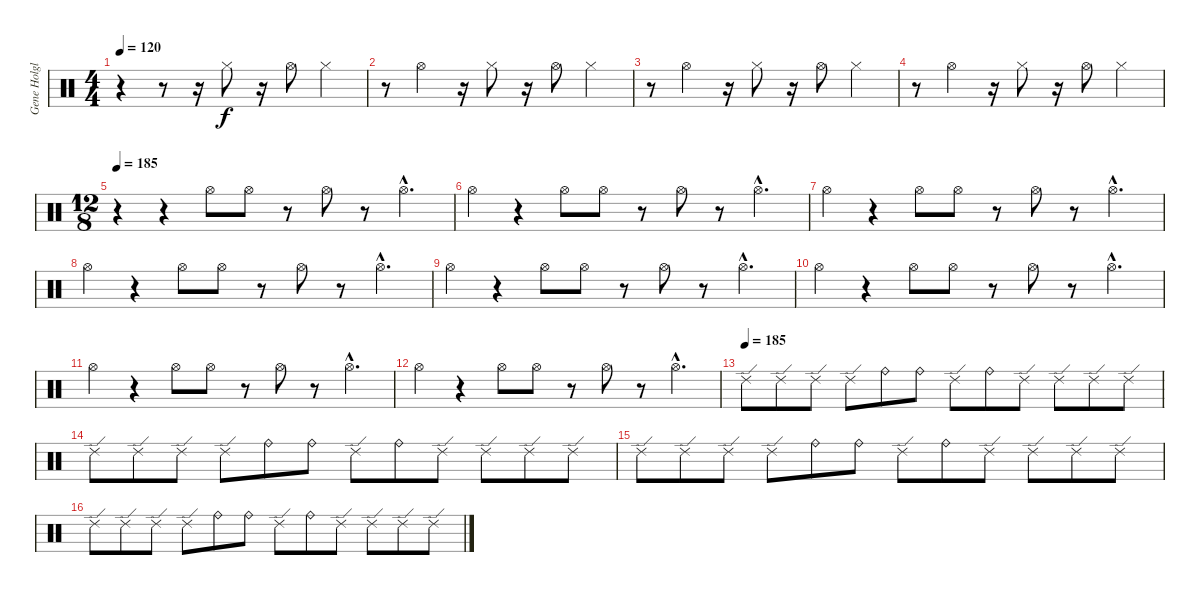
\track ("Gene Holglan" "Gene Holgl") {instrument percussion}
\staff {score}
\articulation defaults
\ts (4 4)
\tempo 120
\clef neutral
\ks c
r.4{dy f} r.8 r.16 "Hi-Hat (closed)".8 r.16 "Hi-Hat (open)".8 "Hi-Hat (closed)".4 |
r.8 "Hi-Hat (open)".4 r.16 "Hi-Hat (closed)".8 r.16 "Hi-Hat (open)".8 "Hi-Hat (closed)".4 |
r.8 "Hi-Hat (open)".4 r.16 "Hi-Hat (closed)".8 r.16 "Hi-Hat (open)".8 "Hi-Hat (closed)".4 |
r.8 "Hi-Hat (open)".4 r.16 "Hi-Hat (closed)".8 r.16 "Hi-Hat (open)".8 "Hi-Hat (closed)".4 |
\ts (12 8)
\tempo 185
r.4 r.4 "Hi-Hat (open)".8 "Hi-Hat (open)".8 r.8 "Hi-Hat (open)".8 r.8 "Hi-Hat (open)"{hac}.4{d} |
"Hi-Hat (open)".4 r.4 "Hi-Hat (open)".8 "Hi-Hat (open)".8 r.8 "Hi-Hat (open)".8 r.8 "Hi-Hat (open)"{hac}.4{d} |
"Hi-Hat (open)".4 r.4 "Hi-Hat (open)".8 "Hi-Hat (open)".8 r.8 "Hi-Hat (open)".8 r.8 "Hi-Hat (open)"{hac}.4{d} |
"Hi-Hat (open)".4 r.4 "Hi-Hat (open)".8 "Hi-Hat (open)".8 r.8 "Hi-Hat (open)".8 r.8 "Hi-Hat (open)"{hac}.4{d} |
"Hi-Hat (open)".4 r.4 "Hi-Hat (open)".8 "Hi-Hat (open)".8 r.8 "Hi-Hat (open)".8 r.8 "Hi-Hat (open)"{hac}.4{d} |
"Hi-Hat (open)".4 r.4 "Hi-Hat (open)".8 "Hi-Hat (open)".8 r.8 "Hi-Hat (open)".8 r.8 "Hi-Hat (open)"{hac}.4{d} |
"Hi-Hat (open)".4 r.4 "Hi-Hat (open)".8 "Hi-Hat (open)".8 r.8 "Hi-Hat (open)".8 r.8 "Hi-Hat (open)"{hac}.4{d} |
"Hi-Hat (open)".4 r.4 "Hi-Hat (open)".8 "Hi-Hat (open)".8 r.8 "Hi-Hat (open)".8 r.8 "Hi-Hat (open)"{hac}.4{d} |
\tempo (185)
"Ride (edge) 2".8 "Ride (edge) 2".8 "Ride (edge) 2".8 "Ride (edge) 2".8 "Ride (bell)".8 "Ride (bell)".8 "Ride (edge) 2".8 "Ride (bell)".8 "Ride (edge) 2".8 "Ride (edge) 2".8 "Ride (edge) 2".8 "Ride (edge) 2".8 |
"Ride (edge) 2".8 "Ride (edge) 2".8 "Ride (edge) 2".8 "Ride (edge) 2".8 "Ride (bell)".8 "Ride (bell)".8 "Ride (edge) 2".8 "Ride (bell)".8 "Ride (edge) 2".8 "Ride (edge) 2".8 "Ride (edge) 2".8 "Ride (edge) 2".8 |
"Ride (edge) 2".8 "Ride (edge) 2".8 "Ride (edge) 2".8 "Ride (edge) 2".8 "Ride (bell)".8 "Ride (bell)".8 "Ride (edge) 2".8 "Ride (bell)".8 "Ride (edge) 2".8 "Ride (edge) 2".8 "Ride (edge) 2".8 "Ride (edge) 2".8 |
"Ride (edge) 2".8 "Ride (edge) 2".8 "Ride (edge) 2".8 "Ride (edge) 2".8 "Ride (bell)".8 "Ride (bell)".8 "Ride (edge) 2".8 "Ride (bell)".8 "Ride (edge) 2".8 "Ride (edge) 2".8 "Ride (edge) 2".8 "Ride (edge) 2".8
